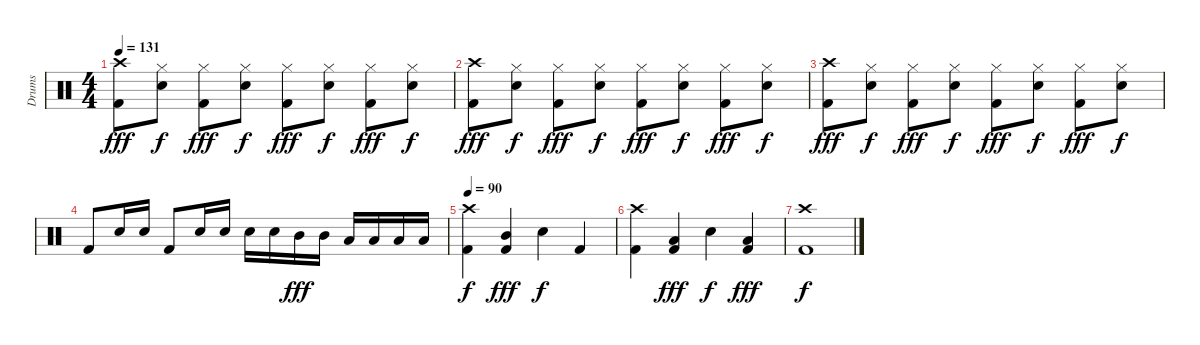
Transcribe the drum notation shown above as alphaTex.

\track ("Drums" "Drums") {instrument percussion}
\staff {score}
\articulation defaults
\ts (4 4)
\tempo 131
\clef neutral
\ks c
("Crash high (hit)" "Kick (hit) 2").8{dy fff} ("Hi-Hat (closed)" "Electric Snare (hit)").8{dy f} ("Hi-Hat (closed)" "Kick (hit) 2").8{dy fff} ("Hi-Hat (closed)" "Electric Snare (hit)").8{dy f} ("Hi-Hat (closed)" "Kick (hit) 2").8{dy fff} ("Hi-Hat (closed)" "Electric Snare (hit)").8{dy f} ("Hi-Hat (closed)" "Kick (hit) 2").8{dy fff} ("Hi-Hat (closed)" "Electric Snare (hit)").8{dy f} |
("Crash high (hit)" "Kick (hit) 2").8{dy fff} ("Hi-Hat (closed)" "Electric Snare (hit)").8{dy f} ("Hi-Hat (closed)" "Kick (hit) 2").8{dy fff} ("Hi-Hat (closed)" "Electric Snare (hit)").8{dy f} ("Hi-Hat (closed)" "Kick (hit) 2").8{dy fff} ("Hi-Hat (closed)" "Electric Snare (hit)").8{dy f} ("Hi-Hat (closed)" "Kick (hit) 2").8{dy fff} ("Hi-Hat (closed)" "Electric Snare (hit)").8{dy f} |
("Crash high (hit)" "Kick (hit) 2").8{dy fff} ("Hi-Hat (closed)" "Electric Snare (hit)").8{dy f} ("Hi-Hat (closed)" "Kick (hit) 2").8{dy fff} ("Hi-Hat (closed)" "Electric Snare (hit)").8{dy f} ("Hi-Hat (closed)" "Kick (hit) 2").8{dy fff} ("Hi-Hat (closed)" "Electric Snare (hit)").8{dy f} ("Hi-Hat (closed)" "Kick (hit) 2").8{dy fff} ("Hi-Hat (closed)" "Electric Snare (hit)").8{dy f} |
"Kick (hit) 2".8 "Electric Snare (hit)".16 "Electric Snare (hit)".16 "Kick (hit) 2".8 "Electric Snare (hit)".16 "Electric Snare (hit)".16 "Electric Snare (hit)".16 "Electric Snare (hit)".16 "Mid Tom (hit)".16{dy fff} "Mid Tom (hit)".16 "Low Tom (hit)".16 "Low Tom (hit)".16 "Low Floor Tom (hit)".16 "Low Floor Tom (hit)".16 |
\tempo 90
("Crash high (hit)" "Kick (hit) 2").4{dy f} ("Mid Tom (hit)" "Kick (hit) 2").4{dy fff} "Electric Snare (hit)".4{dy f} "Kick (hit) 2".4 |
("Crash high (hit)" "Kick (hit) 2").4 ("Low Tom (hit)" "Kick (hit) 2").4{dy fff} "Electric Snare (hit)".4{dy f} ("Low Floor Tom (hit)" "Kick (hit) 2").4{dy fff} |
("Crash high (hit)" "Kick (hit) 2").1{dy f}
